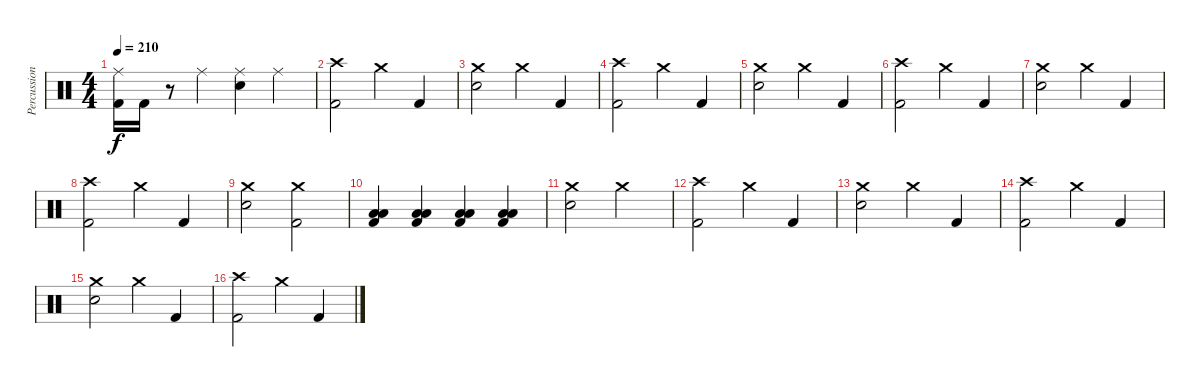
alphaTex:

\track ("Percussions" "Percussion") {instrument percussion}
\staff {score}
\articulation defaults
\ts (4 4)
\tempo 210
\clef neutral
\ks c
("Kick (hit) 2" "Ride (middle)").16{dy f} "Kick (hit) 2".16 r.8 "Ride (middle)".4 ("Electric Snare (hit)" "Ride (middle)").4 "Ride (middle)".4 |
("Kick (hit) 2" "Crash high (hit)").2 "Crash medium (hit)".4 "Kick (hit) 2".4 |
("Electric Snare (hit)" "Crash medium (hit)").2 "Crash medium (hit)".4 "Kick (hit) 2".4 |
("Kick (hit) 2" "Crash high (hit)").2 "Crash medium (hit)".4 "Kick (hit) 2".4 |
("Electric Snare (hit)" "Crash medium (hit)").2 "Crash medium (hit)".4 "Kick (hit) 2".4 |
("Kick (hit) 2" "Crash high (hit)").2 "Crash medium (hit)".4 "Kick (hit) 2".4 |
("Electric Snare (hit)" "Crash medium (hit)").2 "Crash medium (hit)".4 "Kick (hit) 2".4 |
("Kick (hit) 2" "Crash high (hit)").2 "Crash medium (hit)".4 "Kick (hit) 2".4 |
("Electric Snare (hit)" "Crash medium (hit)").2 ("Kick (hit) 2" "Crash medium (hit)").2 |
("Kick (hit) 2" "Low Tom (hit)" "Low Floor Tom (hit)").4 ("Kick (hit) 2" "Low Tom (hit)" "Low Floor Tom (hit)").4 ("Kick (hit) 2" "Low Tom (hit)" "Low Floor Tom (hit)").4 ("Kick (hit) 2" "Low Tom (hit)" "Low Floor Tom (hit)").4 |
("Electric Snare (hit)" "Crash medium (hit)").2 "Crash medium (hit)".2 |
("Kick (hit) 2" "Crash high (hit)").2 "Crash medium (hit)".4 "Kick (hit) 2".4 |
("Electric Snare (hit)" "Crash medium (hit)").2 "Crash medium (hit)".4 "Kick (hit) 2".4 |
("Kick (hit) 2" "Crash high (hit)").2 "Crash medium (hit)".4 "Kick (hit) 2".4 |
("Electric Snare (hit)" "Crash medium (hit)").2 "Crash medium (hit)".4 "Kick (hit) 2".4 |
("Kick (hit) 2" "Crash high (hit)").2 "Crash medium (hit)".4 "Kick (hit) 2".4
